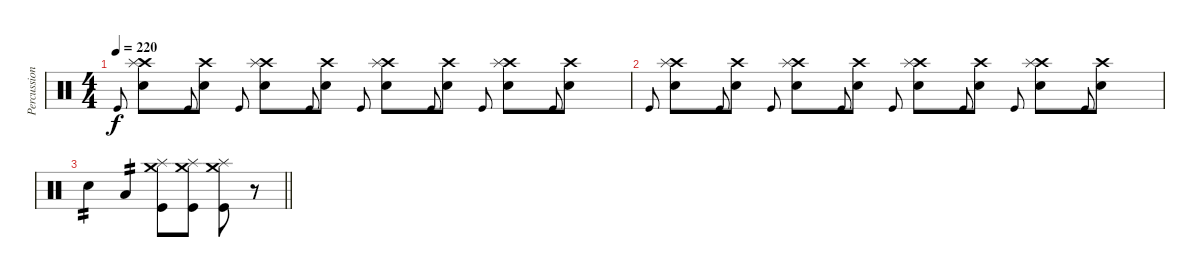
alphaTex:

\track ("Percussion" "Percussion") {instrument percussion}
\staff {score}
\articulation defaults
\ts (4 4)
\tempo 220
\clef neutral
\ks c "Kick (hit)".8{gr onbeat dy f}
("Crash high (hit)" "Splash (hit)" "Snare (hit) 2").8 "Kick (hit)".8{gr onbeat} ("Crash high (hit)" "Snare (hit) 2").8 "Kick (hit)".8{gr onbeat} ("Crash high (hit)" "Splash (hit)" "Snare (hit) 2").8 "Kick (hit)".8{gr onbeat} ("Crash high (hit)" "Snare (hit) 2").8 "Kick (hit)".8{gr onbeat} ("Crash high (hit)" "Splash (hit)" "Snare (hit) 2").8 "Kick (hit)".8{gr onbeat} ("Crash high (hit)" "Snare (hit) 2").8 "Kick (hit)".8{gr onbeat} ("Crash high (hit)" "Splash (hit)" "Snare (hit) 2").8 "Kick (hit)".8{gr onbeat} ("Crash high (hit)" "Snare (hit) 2").8 |
"Kick (hit)".8{gr onbeat} ("Crash high (hit)" "Splash (hit)" "Snare (hit) 2").8 "Kick (hit)".8{gr onbeat} ("Crash high (hit)" "Snare (hit) 2").8 "Kick (hit)".8{gr onbeat} ("Crash high (hit)" "Splash (hit)" "Snare (hit) 2").8 "Kick (hit)".8{gr onbeat} ("Crash high (hit)" "Snare (hit) 2").8 "Kick (hit)".8{gr onbeat} ("Crash high (hit)" "Splash (hit)" "Snare (hit) 2").8 "Kick (hit)".8{gr onbeat} ("Crash high (hit)" "Snare (hit) 2").8 "Kick (hit)".8{gr onbeat} ("Crash high (hit)" "Splash (hit)" "Snare (hit) 2").8 "Kick (hit)".8{gr onbeat} ("Crash high (hit)" "Snare (hit) 2").8 |
\barLineRight lightlight "Snare (hit) 2".4{tp 2} "Low Tom (hit)".4{tp 2}
("Splash (hit)" "Crash medium (hit)" "Kick (hit)").8 ("Splash (hit)" "Crash medium (hit)" "Kick (hit)").8 ("Splash (hit)" "Crash medium (hit)" "Kick (hit)").8 r.8
